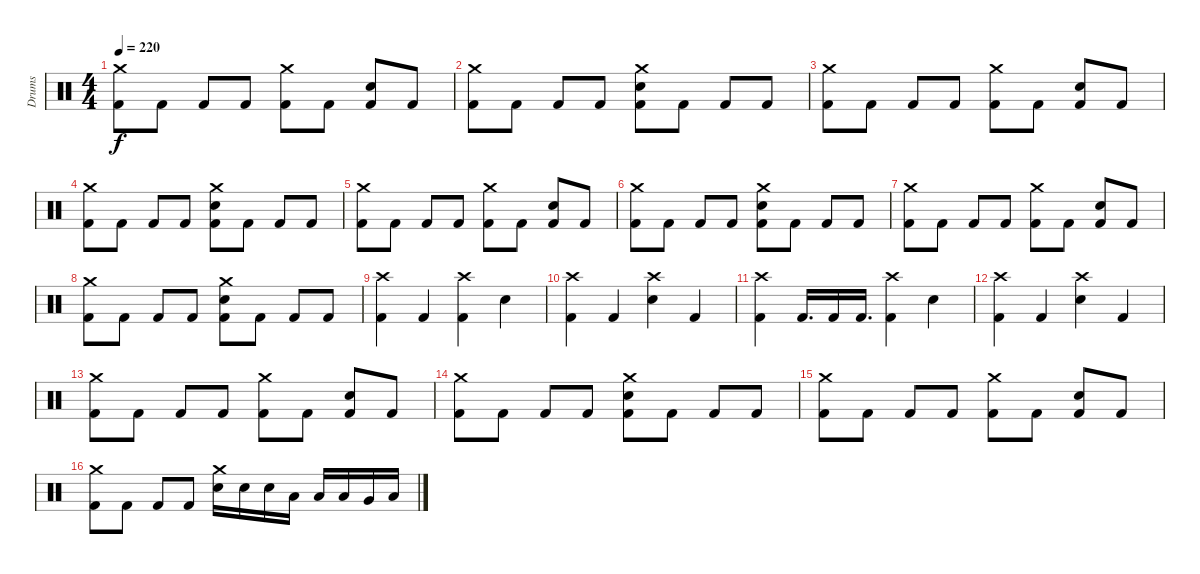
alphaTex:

\track ("Drums" "Drums") {instrument percussion}
\staff {score}
\articulation defaults
\ts (4 4)
\tempo 220
\clef neutral
\ks c
("Crash medium (hit)" "Kick (hit) 2").8{dy f} "Kick (hit) 2".8 "Kick (hit) 2".8 "Kick (hit) 2".8 ("Crash medium (hit)" "Kick (hit) 2").8 "Kick (hit) 2".8 ("Electric Snare (hit)" "Kick (hit) 2").8 "Kick (hit) 2".8 |
("Crash medium (hit)" "Kick (hit) 2").8 "Kick (hit) 2".8 "Kick (hit) 2".8 "Kick (hit) 2".8 ("Crash medium (hit)" "Electric Snare (hit)" "Kick (hit) 2").8 "Kick (hit) 2".8 "Kick (hit) 2".8 "Kick (hit) 2".8 |
("Crash medium (hit)" "Kick (hit) 2").8 "Kick (hit) 2".8 "Kick (hit) 2".8 "Kick (hit) 2".8 ("Crash medium (hit)" "Kick (hit) 2").8 "Kick (hit) 2".8 ("Electric Snare (hit)" "Kick (hit) 2").8 "Kick (hit) 2".8 |
("Crash medium (hit)" "Kick (hit) 2").8 "Kick (hit) 2".8 "Kick (hit) 2".8 "Kick (hit) 2".8 ("Crash medium (hit)" "Electric Snare (hit)" "Kick (hit) 2").8 "Kick (hit) 2".8 "Kick (hit) 2".8 "Kick (hit) 2".8 |
("Crash medium (hit)" "Kick (hit) 2").8 "Kick (hit) 2".8 "Kick (hit) 2".8 "Kick (hit) 2".8 ("Crash medium (hit)" "Kick (hit) 2").8 "Kick (hit) 2".8 ("Electric Snare (hit)" "Kick (hit) 2").8 "Kick (hit) 2".8 |
("Crash medium (hit)" "Kick (hit) 2").8 "Kick (hit) 2".8 "Kick (hit) 2".8 "Kick (hit) 2".8 ("Crash medium (hit)" "Electric Snare (hit)" "Kick (hit) 2").8 "Kick (hit) 2".8 "Kick (hit) 2".8 "Kick (hit) 2".8 |
("Crash medium (hit)" "Kick (hit) 2").8 "Kick (hit) 2".8 "Kick (hit) 2".8 "Kick (hit) 2".8 ("Crash medium (hit)" "Kick (hit) 2").8 "Kick (hit) 2".8 ("Electric Snare (hit)" "Kick (hit) 2").8 "Kick (hit) 2".8 |
("Crash medium (hit)" "Kick (hit) 2").8 "Kick (hit) 2".8 "Kick (hit) 2".8 "Kick (hit) 2".8 ("Crash medium (hit)" "Electric Snare (hit)" "Kick (hit) 2").8 "Kick (hit) 2".8 "Kick (hit) 2".8 "Kick (hit) 2".8 |
("Crash high (hit)" "Kick (hit) 2").4 "Kick (hit) 2".4 ("Crash high (hit)" "Kick (hit) 2").4 "Electric Snare (hit)".4 |
("Crash high (hit)" "Kick (hit) 2").4 "Kick (hit) 2".4 ("Crash high (hit)" "Electric Snare (hit)").4 "Kick (hit) 2".4 |
("Crash high (hit)" "Kick (hit) 2").4 "Kick (hit) 2".16{d} "Kick (hit) 2".16 "Kick (hit) 2".16{d} ("Crash high (hit)" "Kick (hit) 2").4 "Electric Snare (hit)".4 |
("Crash high (hit)" "Kick (hit) 2").4 "Kick (hit) 2".4 ("Crash high (hit)" "Electric Snare (hit)").4 "Kick (hit) 2".4 |
("Crash medium (hit)" "Kick (hit) 2").8 "Kick (hit) 2".8 "Kick (hit) 2".8 "Kick (hit) 2".8 ("Crash medium (hit)" "Kick (hit) 2").8 "Kick (hit) 2".8 ("Electric Snare (hit)" "Kick (hit) 2").8 "Kick (hit) 2".8 |
("Crash medium (hit)" "Kick (hit) 2").8 "Kick (hit) 2".8 "Kick (hit) 2".8 "Kick (hit) 2".8 ("Crash medium (hit)" "Electric Snare (hit)" "Kick (hit) 2").8 "Kick (hit) 2".8 "Kick (hit) 2".8 "Kick (hit) 2".8 |
("Crash medium (hit)" "Kick (hit) 2").8 "Kick (hit) 2".8 "Kick (hit) 2".8 "Kick (hit) 2".8 ("Crash medium (hit)" "Kick (hit) 2").8 "Kick (hit) 2".8 ("Electric Snare (hit)" "Kick (hit) 2").8 "Kick (hit) 2".8 |
("Crash medium (hit)" "Kick (hit) 2").8 "Kick (hit) 2".8 "Kick (hit) 2".8 "Kick (hit) 2".8 ("Crash medium (hit)" "Electric Snare (hit)").16 "Electric Snare (hit)".16 "Electric Snare (hit)".16 "Low Tom (hit)".16 "Low Tom (hit)".16 "Low Tom (hit)".16 "Very Low Tom (hit)".16 "Low Floor Tom (hit)".16
